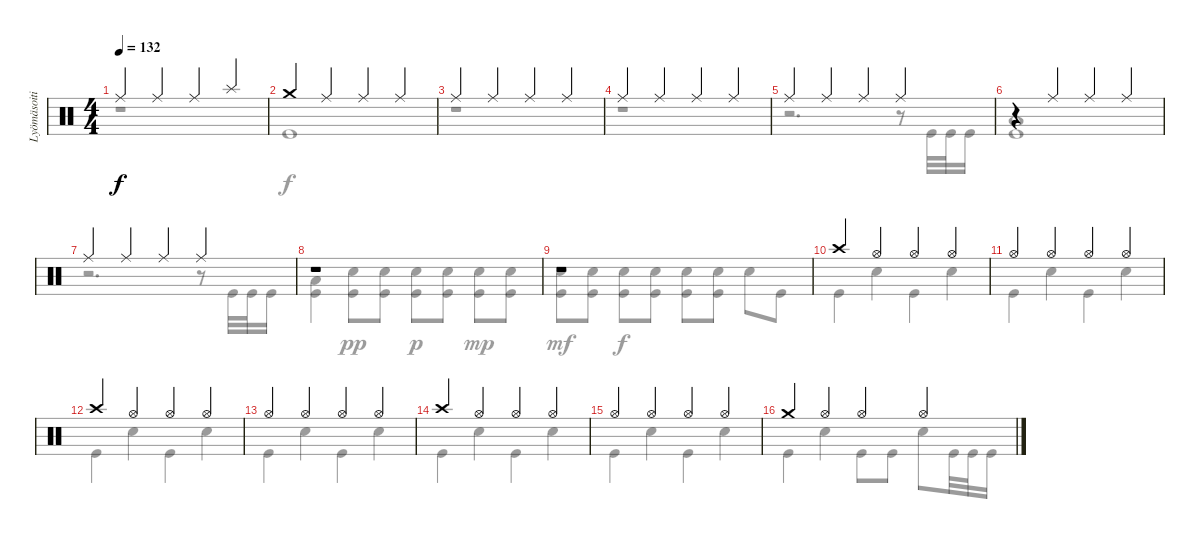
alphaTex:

\track ("Lyömäsoitin" "Lyömäsoiti") {instrument percussion}
\staff {score}
\articulation defaults
\voice
\ts (4 4)
\tempo 132
\clef neutral
\ks c "Ride (middle)".4{dy f} "Ride (middle)".4 "Ride (middle)".4 "Splash (hit)".4
|
"Crash medium (hit)".4 "Ride (middle)".4 "Ride (middle)".4 "Ride (middle)".4 |
"Ride (middle)".4 "Ride (middle)".4 "Ride (middle)".4 "Ride (middle)".4 |
"Ride (middle)".4 "Ride (middle)".4 "Ride (middle)".4 "Ride (middle)".4 |
"Ride (middle)".4 "Ride (middle)".4 "Ride (middle)".4 "Ride (middle)".4 |
r.4 "Ride (middle)".4 "Ride (middle)".4 "Ride (middle)".4 |
"Ride (middle)".4 "Ride (middle)".4 "Ride (middle)".4 "Ride (middle)".4 |
r.1 |
r.1 |
"Crash high (hit)".4 "Hi-Hat (open)".4 "Hi-Hat (open)".4 "Hi-Hat (open)".4 |
"Hi-Hat (open)".4 "Hi-Hat (open)".4 "Hi-Hat (open)".4 "Hi-Hat (open)".4 |
"Crash high (hit)".4 "Hi-Hat (open)".4 "Hi-Hat (open)".4 "Hi-Hat (open)".4 |
"Hi-Hat (open)".4 "Hi-Hat (open)".4 "Hi-Hat (open)".4 "Hi-Hat (open)".4 |
"Crash high (hit)".4 "Hi-Hat (open)".4 "Hi-Hat (open)".4 "Hi-Hat (open)".4 |
"Hi-Hat (open)".4 "Hi-Hat (open)".4 "Hi-Hat (open)".4 "Hi-Hat (open)".4 |
"Crash medium (hit)".4 "Hi-Hat (open)".4 "Hi-Hat (open)".4 "Hi-Hat (open)".4
\voice
\clef neutral
\ottava regular
\simile none
\ks c
r.1{dy f} |
"Kick (hit)".1 |
r.1 |
r.1 |
r.2{d} r.8 "Kick (hit)".32 "Kick (hit)".32 "Kick (hit)".16 |
("Low Floor Tom (hit)" "Kick (hit)").1 |
r.2{d} r.8 "Kick (hit)".32 "Kick (hit)".32 "Kick (hit)".16 |
("Low Floor Tom (hit)" "Kick (hit)").4 ("Electric Snare (hit)" "Kick (hit)").8{dy pp} ("Electric Snare (hit)" "Kick (hit)").8 ("Electric Snare (hit)" "Kick (hit)").8{dy p} ("Electric Snare (hit)" "Kick (hit)").8 ("Electric Snare (hit)" "Kick (hit)").8{dy mp} ("Electric Snare (hit)" "Kick (hit)").8 |
("Electric Snare (hit)" "Kick (hit)").8{dy mf} ("Electric Snare (hit)" "Kick (hit)").8 ("Electric Snare (hit)" "Kick (hit)").8{dy f} ("Electric Snare (hit)" "Kick (hit)").8 ("Electric Snare (hit)" "Kick (hit)").8 ("Electric Snare (hit)" "Kick (hit)").8 "Electric Snare (hit)".8 "Kick (hit)".8 |
"Kick (hit)".4 "Electric Snare (hit)".4 "Kick (hit)".4 "Electric Snare (hit)".4 |
"Kick (hit)".4 "Electric Snare (hit)".4 "Kick (hit)".4 "Electric Snare (hit)".4 |
"Kick (hit)".4 "Electric Snare (hit)".4 "Kick (hit)".4 "Electric Snare (hit)".4 |
"Kick (hit)".4 "Electric Snare (hit)".4 "Kick (hit)".4 "Electric Snare (hit)".4 |
"Kick (hit)".4 "Electric Snare (hit)".4 "Kick (hit)".4 "Electric Snare (hit)".4 |
"Kick (hit)".4 "Electric Snare (hit)".4 "Kick (hit)".4 "Electric Snare (hit)".4 |
"Kick (hit)".4 "Electric Snare (hit)".4 "Kick (hit)".8 "Kick (hit)".8 "Electric Snare (hit)".8 "Kick (hit)".32 "Kick (hit)".32 "Kick (hit)".16
